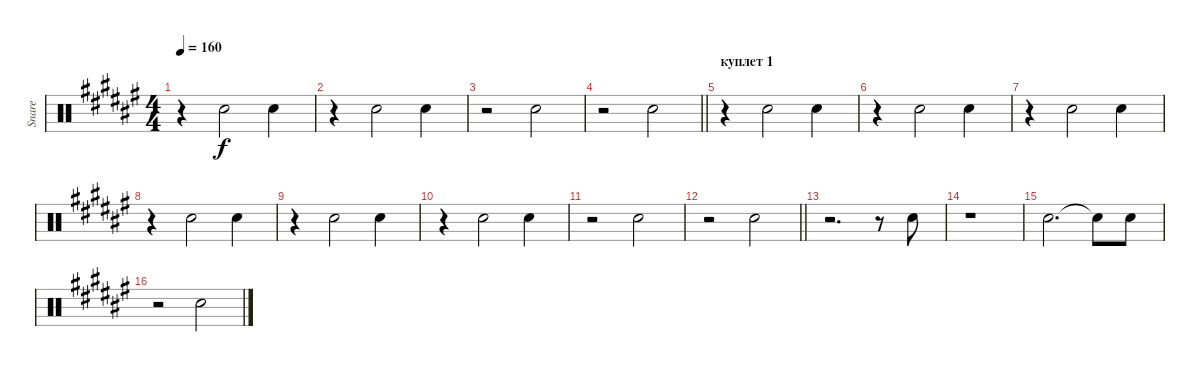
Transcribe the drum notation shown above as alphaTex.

\track ("Snare" "Snare") {instrument percussion}
\staff {score}
\articulation defaults
\ts (4 4)
\tempo 160
\clef neutral
\ks d#minor
r.4{dy f} "Electric Snare (hit)".2 "Electric Snare (hit)".4 |
r.4 "Electric Snare (hit)".2 "Electric Snare (hit)".4 |
r.2 "Electric Snare (hit)".2 |
\barLineRight lightlight
r.2 "Electric Snare (hit)".2 |
\section ("" "куплет 1")
r.4 "Electric Snare (hit)".2 "Electric Snare (hit)".4 |
r.4 "Electric Snare (hit)".2 "Electric Snare (hit)".4 |
r.4 "Electric Snare (hit)".2 "Electric Snare (hit)".4 |
r.4 "Electric Snare (hit)".2 "Electric Snare (hit)".4 |
r.4 "Electric Snare (hit)".2 "Electric Snare (hit)".4 |
r.4 "Electric Snare (hit)".2 "Electric Snare (hit)".4 |
r.2 "Electric Snare (hit)".2 |
\barLineRight lightlight
r.2 "Electric Snare (hit)".2 |
r.2{d} r.8 "Electric Snare (hit)".8 |
r.1 |
"Electric Snare (hit)".2{d} "Electric Snare (hit)"{t}.8 "Electric Snare (hit)".8 |
r.2 "Electric Snare (hit)".2
